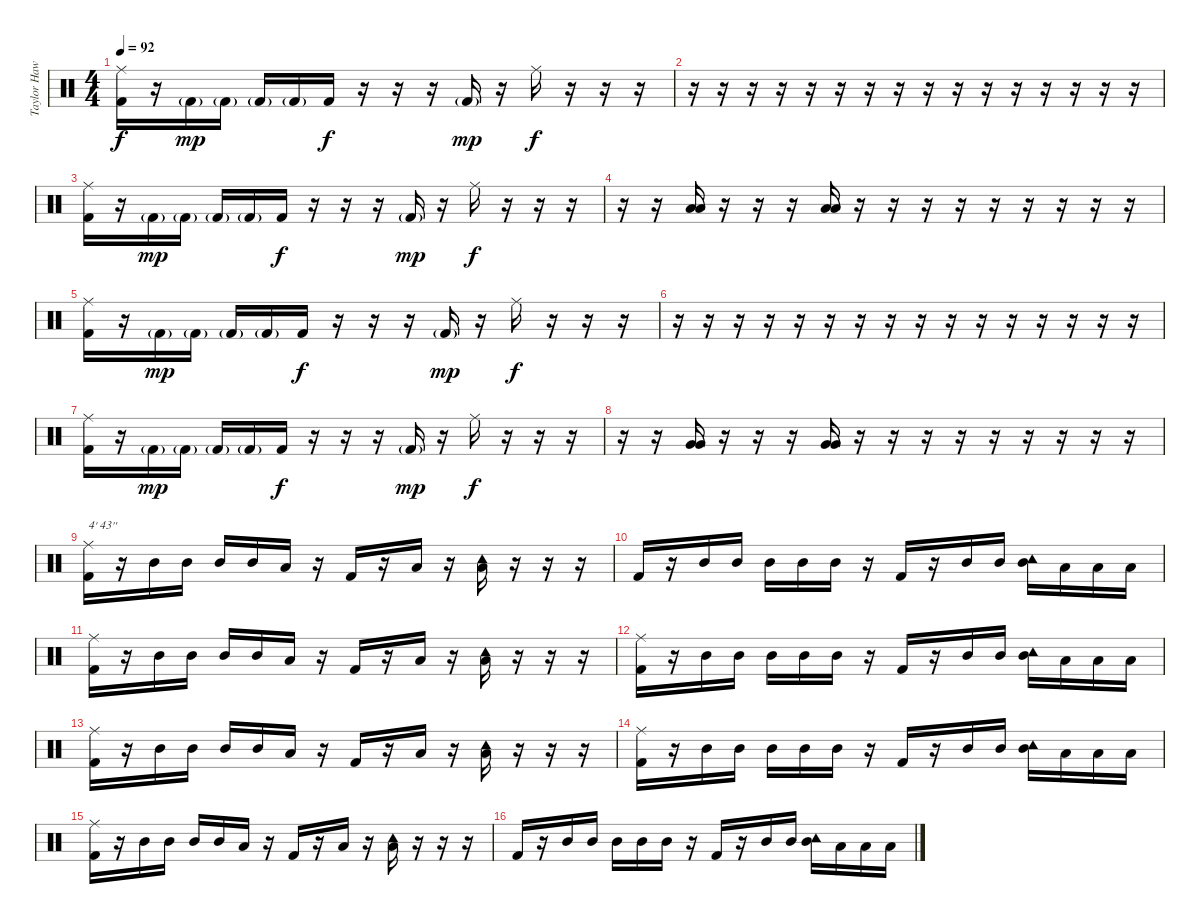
\track ("Taylor Hawkins (Drums)" "Taylor Haw") {instrument percussion}
\staff {score}
\articulation defaults
\ts (4 4)
\tempo 92
\clef neutral
\ks c
("Ride (middle)" "Kick (hit) 2").16{dy f} r.16 "Kick (hit) 2"{g}.16{dy mp} "Kick (hit) 2"{g}.16 "Kick (hit) 2"{g}.16 "Kick (hit) 2"{g}.16 "Kick (hit) 2".16{dy f} r.16 r.16 r.16 "Kick (hit) 2"{g}.16{dy mp} r.16 "Ride (middle)".16{dy f} r.16 r.16 r.16 |
r.16 r.16 r.16 r.16 r.16 r.16 r.16 r.16 r.16 r.16 r.16 r.16 r.16 r.16 r.16 r.16 |
("Ride (middle)" "Kick (hit) 2").16 r.16 "Kick (hit) 2"{g}.16{dy mp} "Kick (hit) 2"{g}.16 "Kick (hit) 2"{g}.16 "Kick (hit) 2"{g}.16 "Kick (hit) 2".16{dy f} r.16 r.16 r.16 "Kick (hit) 2"{g}.16{dy mp} r.16 "Ride (middle)".16{dy f} r.16 r.16 r.16 |
r.16 r.16 ("Low Tom (hit)" "Low Tom (hit)").16 r.16 r.16 r.16 ("Low Tom (hit)" "Low Tom (hit)").16 r.16 r.16 r.16 r.16 r.16 r.16 r.16 r.16 r.16 |
("Ride (middle)" "Kick (hit) 2").16 r.16 "Kick (hit) 2"{g}.16{dy mp} "Kick (hit) 2"{g}.16 "Kick (hit) 2"{g}.16 "Kick (hit) 2"{g}.16 "Kick (hit) 2".16{dy f} r.16 r.16 r.16 "Kick (hit) 2"{g}.16{dy mp} r.16 "Ride (middle)".16{dy f} r.16 r.16 r.16 |
r.16 r.16 r.16 r.16 r.16 r.16 r.16 r.16 r.16 r.16 r.16 r.16 r.16 r.16 r.16 r.16 |
("Ride (middle)" "Kick (hit) 2").16 r.16 "Kick (hit) 2"{g}.16{dy mp} "Kick (hit) 2"{g}.16 "Kick (hit) 2"{g}.16 "Kick (hit) 2"{g}.16 "Kick (hit) 2".16{dy f} r.16 r.16 r.16 "Kick (hit) 2"{g}.16{dy mp} r.16 "Ride (middle)".16{dy f} r.16 r.16 r.16 |
r.16 r.16 ("Very Low Tom (hit)" "Very Low Tom (hit)").16 r.16 r.16 r.16 ("Very Low Tom (hit)" "Very Low Tom (hit)").16 r.16 r.16 r.16 r.16 r.16 r.16 r.16 r.16 r.16 |
("Ride (middle)" "Kick (hit) 2").16{txt "4' 43''"} r.16 "Mid Tom (hit)".16 "Mid Tom (hit)".16 "Mid Tom (hit)".16 "Mid Tom (hit)".16 "Low Tom (hit)".16 r.16 "Kick (hit) 2".16 r.16 "Low Tom (hit)".16 r.16 ("Tambourine (hit)" "Low Tom (hit)").16 r.16 r.16 r.16 |
"Kick (hit) 2".16 r.16 "Mid Tom (hit)".16 "Mid Tom (hit)".16 "Mid Tom (hit)".16 "Mid Tom (hit)".16 "Mid Tom (hit)".16 r.16 "Kick (hit) 2".16 r.16 "Mid Tom (hit)".16 "Mid Tom (hit)".16 ("Tambourine (hit)" "Mid Tom (hit)").16 "Low Tom (hit)".16 "Low Tom (hit)".16 "Low Tom (hit)".16 |
("Ride (middle)" "Kick (hit) 2").16 r.16 "Mid Tom (hit)".16 "Mid Tom (hit)".16 "Mid Tom (hit)".16 "Mid Tom (hit)".16 "Low Tom (hit)".16 r.16 "Kick (hit) 2".16 r.16 "Low Tom (hit)".16 r.16 ("Tambourine (hit)" "Low Tom (hit)").16 r.16 r.16 r.16 |
("Ride (middle)" "Kick (hit) 2").16 r.16 "Mid Tom (hit)".16 "Mid Tom (hit)".16 "Mid Tom (hit)".16 "Mid Tom (hit)".16 "Mid Tom (hit)".16 r.16 "Kick (hit) 2".16 r.16 "Mid Tom (hit)".16 "Mid Tom (hit)".16 ("Tambourine (hit)" "Mid Tom (hit)").16 "Low Tom (hit)".16 "Low Tom (hit)".16 "Low Tom (hit)".16 |
("Ride (middle)" "Kick (hit) 2").16 r.16 "Mid Tom (hit)".16 "Mid Tom (hit)".16 "Mid Tom (hit)".16 "Mid Tom (hit)".16 "Low Tom (hit)".16 r.16 "Kick (hit) 2".16 r.16 "Low Tom (hit)".16 r.16 ("Tambourine (hit)" "Low Tom (hit)").16 r.16 r.16 r.16 |
("Ride (middle)" "Kick (hit) 2").16 r.16 "Mid Tom (hit)".16 "Mid Tom (hit)".16 "Mid Tom (hit)".16 "Mid Tom (hit)".16 "Mid Tom (hit)".16 r.16 "Kick (hit) 2".16 r.16 "Mid Tom (hit)".16 "Mid Tom (hit)".16 ("Tambourine (hit)" "Mid Tom (hit)").16 "Low Tom (hit)".16 "Low Tom (hit)".16 "Low Tom (hit)".16 |
("Ride (middle)" "Kick (hit) 2").16 r.16 "Mid Tom (hit)".16 "Mid Tom (hit)".16 "Mid Tom (hit)".16 "Mid Tom (hit)".16 "Low Tom (hit)".16 r.16 "Kick (hit) 2".16 r.16 "Low Tom (hit)".16 r.16 ("Tambourine (hit)" "Low Tom (hit)").16 r.16 r.16 r.16 |
"Kick (hit) 2".16 r.16 "Mid Tom (hit)".16 "Mid Tom (hit)".16 "Mid Tom (hit)".16 "Mid Tom (hit)".16 "Mid Tom (hit)".16 r.16 "Kick (hit) 2".16 r.16 "Mid Tom (hit)".16 "Mid Tom (hit)".16 ("Tambourine (hit)" "Mid Tom (hit)").16 "Low Tom (hit)".16 "Low Tom (hit)".16 "Low Tom (hit)".16
